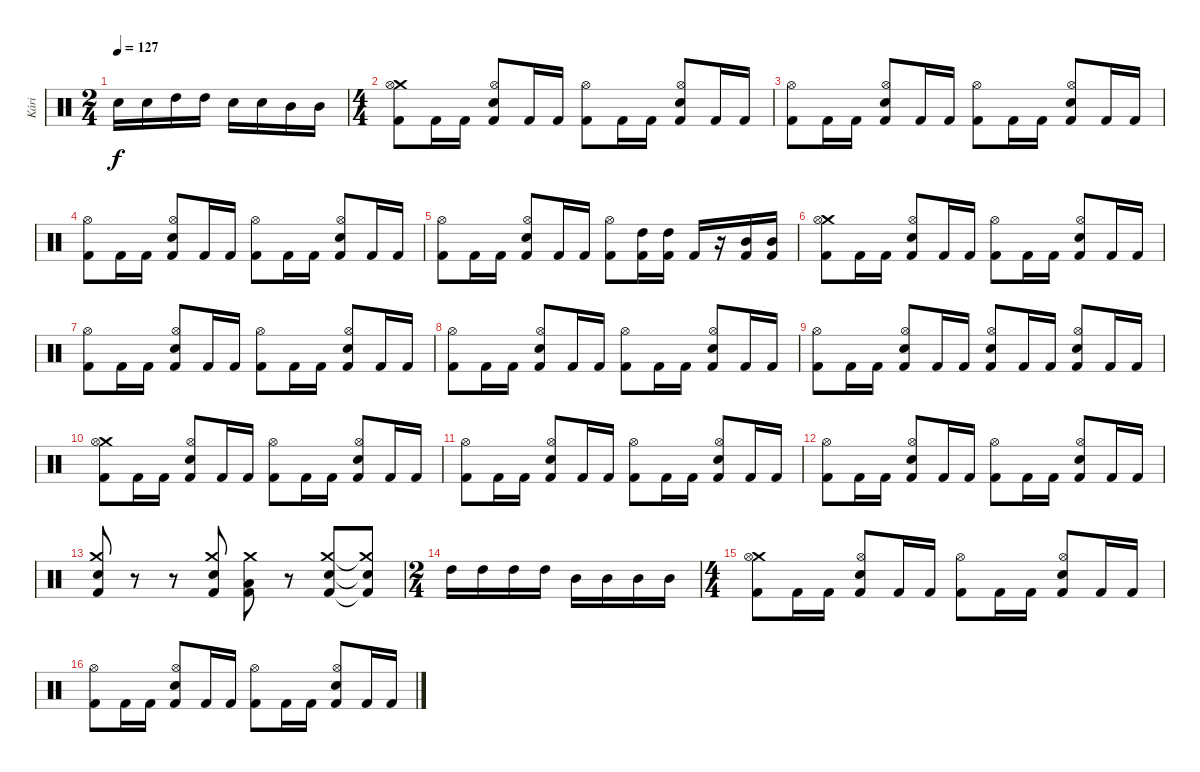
\track ("Kári" "Kári") {instrument percussion}
\staff {score}
\articulation defaults
\ts (2 4)
\tempo 127
\clef neutral
\ks c "Snare (hit) 2".16{dy f} "Snare (hit) 2".16 "High Tom (hit)".16 "High Tom (hit)".16 "Snare (hit) 2".16 "Snare (hit) 2".16 "Mid Tom (hit)".16 "Mid Tom (hit)".16
|
\ts (4 4)
("Crash medium (hit)" "Hi-Hat (open)" "Kick (hit) 2").8 "Kick (hit) 2".16 "Kick (hit) 2".16 ("Hi-Hat (open)" "Snare (hit) 2" "Kick (hit) 2").8 "Kick (hit) 2".16 "Kick (hit) 2".16 ("Hi-Hat (open)" "Kick (hit) 2").8 "Kick (hit) 2".16 "Kick (hit) 2".16 ("Hi-Hat (open)" "Snare (hit) 2" "Kick (hit) 2").8 "Kick (hit) 2".16 "Kick (hit) 2".16 |
("Hi-Hat (open)" "Kick (hit) 2").8 "Kick (hit) 2".16 "Kick (hit) 2".16 ("Hi-Hat (open)" "Snare (hit) 2" "Kick (hit) 2").8 "Kick (hit) 2".16 "Kick (hit) 2".16 ("Hi-Hat (open)" "Kick (hit) 2").8 "Kick (hit) 2".16 "Kick (hit) 2".16 ("Hi-Hat (open)" "Snare (hit) 2" "Kick (hit) 2").8 "Kick (hit) 2".16 "Kick (hit) 2".16 |
("Hi-Hat (open)" "Kick (hit) 2").8 "Kick (hit) 2".16 "Kick (hit) 2".16 ("Hi-Hat (open)" "Snare (hit) 2" "Kick (hit) 2").8 "Kick (hit) 2".16 "Kick (hit) 2".16 ("Hi-Hat (open)" "Kick (hit) 2").8 "Kick (hit) 2".16 "Kick (hit) 2".16 ("Hi-Hat (open)" "Snare (hit) 2" "Kick (hit) 2").8 "Kick (hit) 2".16 "Kick (hit) 2".16 |
("Hi-Hat (open)" "Kick (hit) 2").8 "Kick (hit) 2".16 "Kick (hit) 2".16 ("Hi-Hat (open)" "Snare (hit) 2" "Kick (hit) 2").8 "Kick (hit) 2".16 "Kick (hit) 2".16 ("Hi-Hat (open)" "Kick (hit) 2").8 ("High Tom (hit)" "Kick (hit) 2").16 ("High Tom (hit)" "Kick (hit) 2").16 "Kick (hit) 2".16 r.16 ("Mid Tom (hit)" "Kick (hit) 2").16 ("Mid Tom (hit)" "Kick (hit) 2").16 |
("Crash medium (hit)" "Hi-Hat (open)" "Kick (hit) 2").8 "Kick (hit) 2".16 "Kick (hit) 2".16 ("Hi-Hat (open)" "Snare (hit) 2" "Kick (hit) 2").8 "Kick (hit) 2".16 "Kick (hit) 2".16 ("Hi-Hat (open)" "Kick (hit) 2").8 "Kick (hit) 2".16 "Kick (hit) 2".16 ("Hi-Hat (open)" "Snare (hit) 2" "Kick (hit) 2").8 "Kick (hit) 2".16 "Kick (hit) 2".16 |
("Hi-Hat (open)" "Kick (hit) 2").8 "Kick (hit) 2".16 "Kick (hit) 2".16 ("Hi-Hat (open)" "Snare (hit) 2" "Kick (hit) 2").8 "Kick (hit) 2".16 "Kick (hit) 2".16 ("Hi-Hat (open)" "Kick (hit) 2").8 "Kick (hit) 2".16 "Kick (hit) 2".16 ("Hi-Hat (open)" "Snare (hit) 2" "Kick (hit) 2").8 "Kick (hit) 2".16 "Kick (hit) 2".16 |
("Hi-Hat (open)" "Kick (hit) 2").8 "Kick (hit) 2".16 "Kick (hit) 2".16 ("Hi-Hat (open)" "Snare (hit) 2" "Kick (hit) 2").8 "Kick (hit) 2".16 "Kick (hit) 2".16 ("Hi-Hat (open)" "Kick (hit) 2").8 "Kick (hit) 2".16 "Kick (hit) 2".16 ("Hi-Hat (open)" "Snare (hit) 2" "Kick (hit) 2").8 "Kick (hit) 2".16 "Kick (hit) 2".16 |
("Hi-Hat (open)" "Kick (hit) 2").8 "Kick (hit) 2".16 "Kick (hit) 2".16 ("Hi-Hat (open)" "Snare (hit) 2" "Kick (hit) 2").8 "Kick (hit) 2".16 "Kick (hit) 2".16 ("Hi-Hat (open)" "Snare (hit) 2" "Kick (hit) 2").8 "Kick (hit) 2".16 "Kick (hit) 2".16 ("Hi-Hat (open)" "Snare (hit) 2" "Kick (hit) 2").8 "Kick (hit) 2".16 "Kick (hit) 2".16 |
("Crash medium (hit)" "Hi-Hat (open)" "Kick (hit) 2").8 "Kick (hit) 2".16 "Kick (hit) 2".16 ("Hi-Hat (open)" "Snare (hit) 2" "Kick (hit) 2").8 "Kick (hit) 2".16 "Kick (hit) 2".16 ("Hi-Hat (open)" "Kick (hit) 2").8 "Kick (hit) 2".16 "Kick (hit) 2".16 ("Hi-Hat (open)" "Snare (hit) 2" "Kick (hit) 2").8 "Kick (hit) 2".16 "Kick (hit) 2".16 |
("Hi-Hat (open)" "Kick (hit) 2").8 "Kick (hit) 2".16 "Kick (hit) 2".16 ("Hi-Hat (open)" "Snare (hit) 2" "Kick (hit) 2").8 "Kick (hit) 2".16 "Kick (hit) 2".16 ("Hi-Hat (open)" "Kick (hit) 2").8 "Kick (hit) 2".16 "Kick (hit) 2".16 ("Hi-Hat (open)" "Snare (hit) 2" "Kick (hit) 2").8 "Kick (hit) 2".16 "Kick (hit) 2".16 |
("Hi-Hat (open)" "Kick (hit) 2").8 "Kick (hit) 2".16 "Kick (hit) 2".16 ("Hi-Hat (open)" "Snare (hit) 2" "Kick (hit) 2").8 "Kick (hit) 2".16 "Kick (hit) 2".16 ("Hi-Hat (open)" "Kick (hit) 2").8 "Kick (hit) 2".16 "Kick (hit) 2".16 ("Hi-Hat (open)" "Snare (hit) 2" "Kick (hit) 2").8 "Kick (hit) 2".16 "Kick (hit) 2".16 |
("Crash medium (hit)" "Snare (hit) 2" "Kick (hit) 2").8 r.8 r.8 ("Crash medium (hit)" "Snare (hit) 2" "Kick (hit) 2").8 ("Crash medium (hit)" "Low Tom (hit)" "Kick (hit) 2").8 r.8 ("Crash medium (hit)" "Snare (hit) 2" "Kick (hit) 2").8 ("Crash medium (hit)"{t} "Snare (hit)"{t} "Kick (hit) 2"{t}).8 |
\ts (2 4)
"High Tom (hit)".16 "High Tom (hit)".16 "High Tom (hit)".16 "High Tom (hit)".16 "Mid Tom (hit)".16 "Mid Tom (hit)".16 "Mid Tom (hit)".16 "Mid Tom (hit)".16 |
\ts (4 4)
("Crash medium (hit)" "Hi-Hat (open)" "Kick (hit) 2").8 "Kick (hit) 2".16 "Kick (hit) 2".16 ("Hi-Hat (open)" "Snare (hit) 2" "Kick (hit) 2").8 "Kick (hit) 2".16 "Kick (hit) 2".16 ("Hi-Hat (open)" "Kick (hit) 2").8 "Kick (hit) 2".16 "Kick (hit) 2".16 ("Hi-Hat (open)" "Snare (hit) 2" "Kick (hit) 2").8 "Kick (hit) 2".16 "Kick (hit) 2".16 |
("Hi-Hat (open)" "Kick (hit) 2").8 "Kick (hit) 2".16 "Kick (hit) 2".16 ("Hi-Hat (open)" "Snare (hit) 2" "Kick (hit) 2").8 "Kick (hit) 2".16 "Kick (hit) 2".16 ("Hi-Hat (open)" "Kick (hit) 2").8 "Kick (hit) 2".16 "Kick (hit) 2".16 ("Hi-Hat (open)" "Snare (hit) 2" "Kick (hit) 2").8 "Kick (hit) 2".16 "Kick (hit) 2".16
